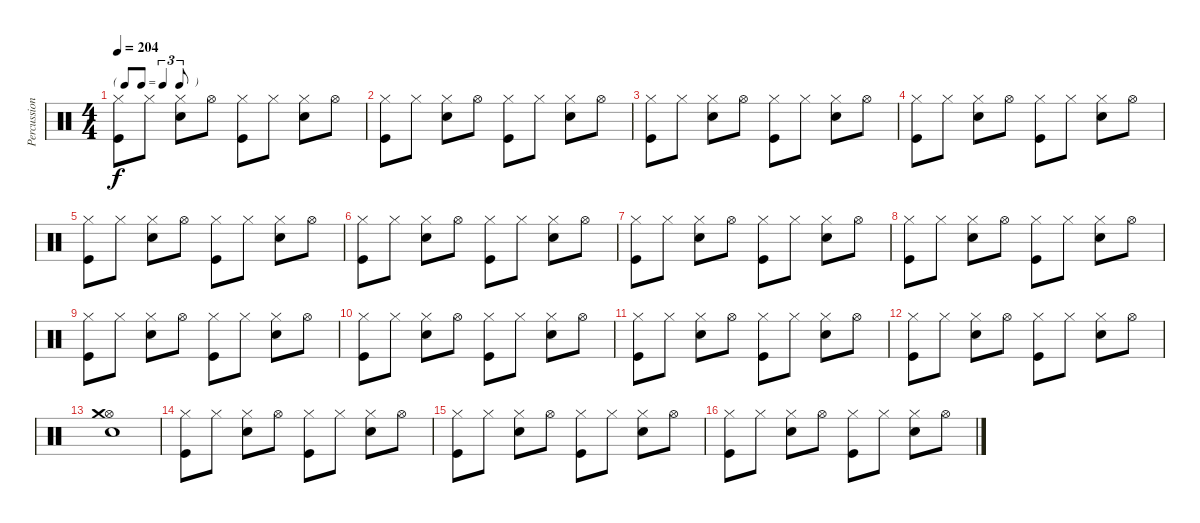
\track ("Percussions" "Percussion") {instrument percussion}
\staff {score}
\articulation defaults
\ts (4 4)
\tf triplet8th
\tempo 204
\clef neutral
\ks c
("Hi-Hat (closed)" "Kick (hit)").8{dy f} "Hi-Hat (closed)".8 ("Hi-Hat (closed)" "Snare (hit) 2").8 "Hi-Hat (open)".8 ("Hi-Hat (closed)" "Kick (hit)").8 "Hi-Hat (closed)".8 ("Hi-Hat (closed)" "Snare (hit) 2").8 "Hi-Hat (open)".8 |
("Hi-Hat (closed)" "Kick (hit)").8 "Hi-Hat (closed)".8 ("Hi-Hat (closed)" "Snare (hit) 2").8 "Hi-Hat (open)".8 ("Hi-Hat (closed)" "Kick (hit)").8 "Hi-Hat (closed)".8 ("Hi-Hat (closed)" "Snare (hit) 2").8 "Hi-Hat (open)".8 |
("Hi-Hat (closed)" "Kick (hit)").8 "Hi-Hat (closed)".8 ("Hi-Hat (closed)" "Snare (hit) 2").8 "Hi-Hat (open)".8 ("Hi-Hat (closed)" "Kick (hit)").8 "Hi-Hat (closed)".8 ("Hi-Hat (closed)" "Snare (hit) 2").8 "Hi-Hat (open)".8 |
("Hi-Hat (closed)" "Kick (hit)").8 "Hi-Hat (closed)".8 ("Hi-Hat (closed)" "Snare (hit) 2").8 "Hi-Hat (open)".8 ("Hi-Hat (closed)" "Kick (hit)").8 "Hi-Hat (closed)".8 ("Hi-Hat (closed)" "Snare (hit) 2").8 "Hi-Hat (open)".8 |
("Hi-Hat (closed)" "Kick (hit)").8 "Hi-Hat (closed)".8 ("Hi-Hat (closed)" "Snare (hit) 2").8 "Hi-Hat (open)".8 ("Hi-Hat (closed)" "Kick (hit)").8 "Hi-Hat (closed)".8 ("Hi-Hat (closed)" "Snare (hit) 2").8 "Hi-Hat (open)".8 |
("Hi-Hat (closed)" "Kick (hit)").8 "Hi-Hat (closed)".8 ("Hi-Hat (closed)" "Snare (hit) 2").8 "Hi-Hat (open)".8 ("Hi-Hat (closed)" "Kick (hit)").8 "Hi-Hat (closed)".8 ("Hi-Hat (closed)" "Snare (hit) 2").8 "Hi-Hat (open)".8 |
("Hi-Hat (closed)" "Kick (hit)").8 "Hi-Hat (closed)".8 ("Hi-Hat (closed)" "Snare (hit) 2").8 "Hi-Hat (open)".8 ("Hi-Hat (closed)" "Kick (hit)").8 "Hi-Hat (closed)".8 ("Hi-Hat (closed)" "Snare (hit) 2").8 "Hi-Hat (open)".8 |
("Hi-Hat (closed)" "Kick (hit)").8 "Hi-Hat (closed)".8 ("Hi-Hat (closed)" "Snare (hit) 2").8 "Hi-Hat (open)".8 ("Hi-Hat (closed)" "Kick (hit)").8 "Hi-Hat (closed)".8 ("Hi-Hat (closed)" "Snare (hit) 2").8 "Hi-Hat (open)".8 |
("Hi-Hat (closed)" "Kick (hit)").8 "Hi-Hat (closed)".8 ("Hi-Hat (closed)" "Snare (hit) 2").8 "Hi-Hat (open)".8 ("Hi-Hat (closed)" "Kick (hit)").8 "Hi-Hat (closed)".8 ("Hi-Hat (closed)" "Snare (hit) 2").8 "Hi-Hat (open)".8 |
("Hi-Hat (closed)" "Kick (hit)").8 "Hi-Hat (closed)".8 ("Hi-Hat (closed)" "Snare (hit) 2").8 "Hi-Hat (open)".8 ("Hi-Hat (closed)" "Kick (hit)").8 "Hi-Hat (closed)".8 ("Hi-Hat (closed)" "Snare (hit) 2").8 "Hi-Hat (open)".8 |
("Hi-Hat (closed)" "Kick (hit)").8 "Hi-Hat (closed)".8 ("Hi-Hat (closed)" "Snare (hit) 2").8 "Hi-Hat (open)".8 ("Hi-Hat (closed)" "Kick (hit)").8 "Hi-Hat (closed)".8 ("Hi-Hat (closed)" "Snare (hit) 2").8 "Hi-Hat (open)".8 |
("Hi-Hat (closed)" "Kick (hit)").8 "Hi-Hat (closed)".8 ("Hi-Hat (closed)" "Snare (hit) 2").8 "Hi-Hat (open)".8 ("Hi-Hat (closed)" "Kick (hit)").8 "Hi-Hat (closed)".8 ("Hi-Hat (closed)" "Snare (hit) 2").8 "Hi-Hat (open)".8 |
("Hi-Hat (open)" "Crash medium (hit)" "Snare (hit) 2").1 |
("Hi-Hat (closed)" "Kick (hit)").8 "Hi-Hat (closed)".8 ("Hi-Hat (closed)" "Snare (hit) 2").8 "Hi-Hat (open)".8 ("Hi-Hat (closed)" "Kick (hit)").8 "Hi-Hat (closed)".8 ("Hi-Hat (closed)" "Snare (hit) 2").8 "Hi-Hat (open)".8 |
("Hi-Hat (closed)" "Kick (hit)").8 "Hi-Hat (closed)".8 ("Hi-Hat (closed)" "Snare (hit) 2").8 "Hi-Hat (open)".8 ("Hi-Hat (closed)" "Kick (hit)").8 "Hi-Hat (closed)".8 ("Hi-Hat (closed)" "Snare (hit) 2").8 "Hi-Hat (open)".8 |
("Hi-Hat (closed)" "Kick (hit)").8 "Hi-Hat (closed)".8 ("Hi-Hat (closed)" "Snare (hit) 2").8 "Hi-Hat (open)".8 ("Hi-Hat (closed)" "Kick (hit)").8 "Hi-Hat (closed)".8 ("Hi-Hat (closed)" "Snare (hit) 2").8 "Hi-Hat (open)".8
